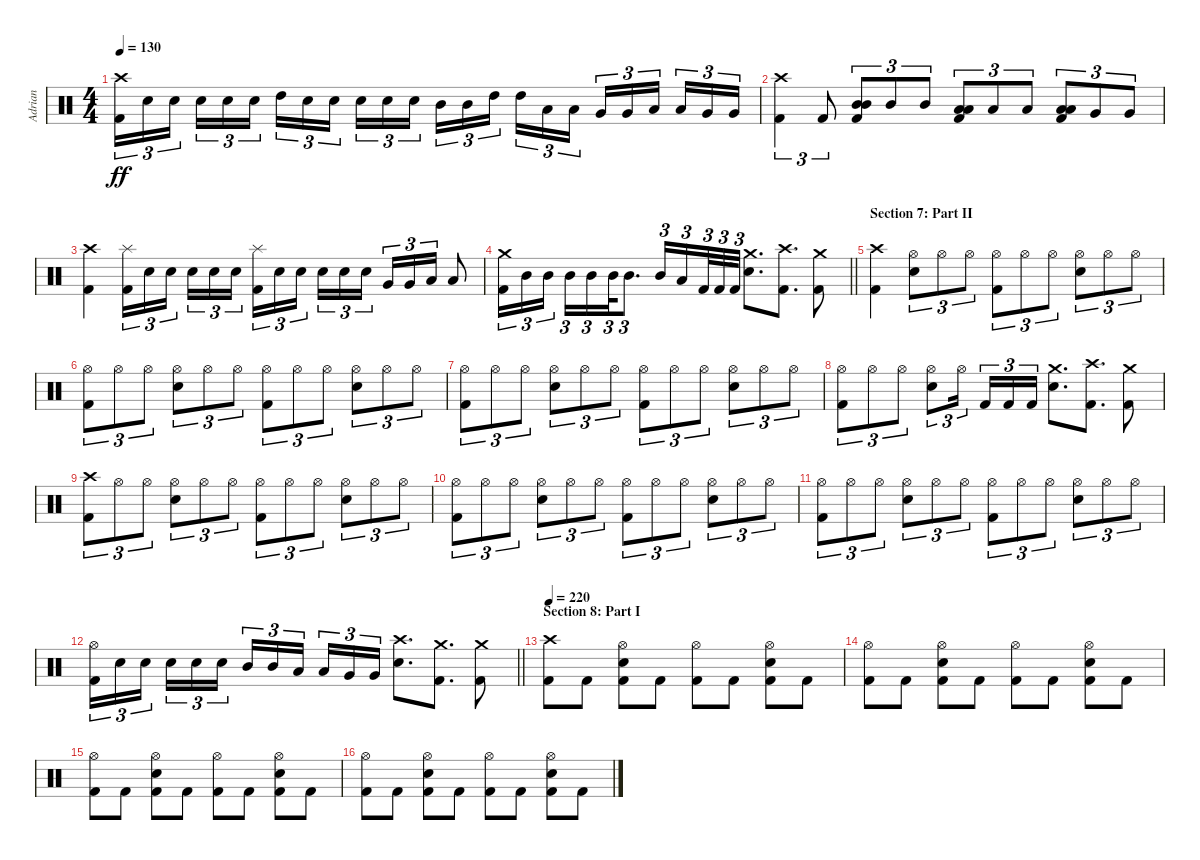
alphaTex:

\track ("Adrian" "Adrian") {instrument percussion}
\staff {score}
\articulation defaults
\ts (4 4)
\tempo 130
\clef neutral
\ks c
("Crash high (hit)" "Kick (hit) 2").16{tu (3 2) dy ff} "Electric Snare (hit)".16{tu (3 2)} "Electric Snare (hit)".16{tu (3 2) beam splitsecondary} "Electric Snare (hit)".16{tu (3 2)} "Electric Snare (hit)".16{tu (3 2)} "Electric Snare (hit)".16{tu (3 2)} "High Tom (hit)".16{tu (3 2)} "Electric Snare (hit)".16{tu (3 2)} "Electric Snare (hit)".16{tu (3 2) beam splitsecondary} "Electric Snare (hit)".16{tu (3 2)} "Electric Snare (hit)".16{tu (3 2)} "Electric Snare (hit)".16{tu (3 2)} "Mid Tom (hit)".16{tu (3 2)} "Mid Tom (hit)".16{tu (3 2)} "High Tom (hit)".16{tu (3 2) beam splitsecondary} "High Tom (hit)".16{tu (3 2)} "Low Tom (hit)".16{tu (3 2)} "Low Tom (hit)".16{tu (3 2)} "Very Low Tom (hit)".16{tu (3 2)} "Very Low Tom (hit)".16{tu (3 2)} "Low Tom (hit)".16{tu (3 2) beam splitsecondary} "Low Tom (hit)".16{tu (3 2)} "Very Low Tom (hit)".16{tu (3 2)} "Very Low Tom (hit)".16{tu (3 2)} |
("Crash high (hit)" "Kick (hit) 2").4{tu (3 2)} "Kick (hit) 2".8{tu (3 2)} ("Mid Tom (hit)" "Mid Tom (hit)" "Kick (hit) 2").8{tu (3 2)} "Mid Tom (hit)".8{tu (3 2)} "Mid Tom (hit)".8{tu (3 2)} ("Low Tom (hit)" "Low Tom (hit)" "Kick (hit) 2").8{tu (3 2)} "Low Tom (hit)".8{tu (3 2)} "Low Tom (hit)".8{tu (3 2)} ("Low Floor Tom (hit)" "Low Floor Tom (hit)" "Kick (hit) 2").8{tu (3 2)} "Very Low Tom (hit)".8{tu (3 2)} "Very Low Tom (hit)".8{tu (3 2)} |
("Crash high (hit)" "Kick (hit) 2").4 ("Splash (hit)" "Kick (hit) 2").16{tu (3 2)} "Electric Snare (hit)".16{tu (3 2)} "Electric Snare (hit)".16{tu (3 2) beam splitsecondary} "Electric Snare (hit)".16{tu (3 2)} "Electric Snare (hit)".16{tu (3 2)} "Electric Snare (hit)".16{tu (3 2)} ("Splash (hit)" "Kick (hit) 2").16{tu (3 2)} "Electric Snare (hit)".16{tu (3 2)} "Electric Snare (hit)".16{tu (3 2) beam splitsecondary} "Electric Snare (hit)".16{tu (3 2)} "Electric Snare (hit)".16{tu (3 2)} "Electric Snare (hit)".16{tu (3 2)} "Very Low Tom (hit)".16{tu (3 2)} "Very Low Tom (hit)".16{tu (3 2)} "Low Tom (hit)".16{tu (3 2)} "Low Tom (hit)".8 |
\barLineRight lightlight
("Crash medium (hit)" "Kick (hit) 2").16{tu (3 2)} "Mid Tom (hit)".16{tu (3 2)} "Mid Tom (hit)".16{tu (3 2) beam splitsecondary} "Mid Tom (hit)".16{tu (3 2)} "Mid Tom (hit)".16{tu (3 2)} "Mid Tom (hit)".32{tu (3 2)} "Mid Tom (hit)".8{d tu (3 2)} "Mid Tom (hit)".16{tu (3 2)} "Low Tom (hit)".16{tu (3 2)} "Kick (hit) 2".32{tu (3 2)} "Kick (hit) 2".32{tu (3 2) beam splitsecondary} "Kick (hit) 2".32{tu (3 2)} ("Crash medium (hit)" "Electric Snare (hit)").8{d} ("Crash high (hit)" "Kick (hit) 2").8{d} ("Crash medium (hit)" "Kick (hit) 2").8 |
\section ("" "Section 7: Part II")
("Crash high (hit)" "Kick (hit) 2").4 ("Hi-Hat (open)" "Electric Snare (hit)").8{tu (3 2)} "Hi-Hat (open)".8{tu (3 2)} "Hi-Hat (open)".8{tu (3 2)} ("Hi-Hat (open)" "Kick (hit) 2").8{tu (3 2)} "Hi-Hat (open)".8{tu (3 2)} "Hi-Hat (open)".8{tu (3 2)} ("Hi-Hat (open)" "Electric Snare (hit)").8{tu (3 2)} "Hi-Hat (open)".8{tu (3 2)} "Hi-Hat (open)".8{tu (3 2)} |
("Hi-Hat (open)" "Kick (hit) 2").8{tu (3 2)} "Hi-Hat (open)".8{tu (3 2)} "Hi-Hat (open)".8{tu (3 2)} ("Hi-Hat (open)" "Electric Snare (hit)").8{tu (3 2)} "Hi-Hat (open)".8{tu (3 2)} "Hi-Hat (open)".8{tu (3 2)} ("Hi-Hat (open)" "Kick (hit) 2").8{tu (3 2)} "Hi-Hat (open)".8{tu (3 2)} "Hi-Hat (open)".8{tu (3 2)} ("Hi-Hat (open)" "Electric Snare (hit)").8{tu (3 2)} "Hi-Hat (open)".8{tu (3 2)} "Hi-Hat (open)".8{tu (3 2)} |
("Hi-Hat (open)" "Kick (hit) 2").8{tu (3 2)} "Hi-Hat (open)".8{tu (3 2)} "Hi-Hat (open)".8{tu (3 2)} ("Hi-Hat (open)" "Electric Snare (hit)").8{tu (3 2)} "Hi-Hat (open)".8{tu (3 2)} "Hi-Hat (open)".8{tu (3 2)} ("Hi-Hat (open)" "Kick (hit) 2").8{tu (3 2)} "Hi-Hat (open)".8{tu (3 2)} "Hi-Hat (open)".8{tu (3 2)} ("Hi-Hat (open)" "Electric Snare (hit)").8{tu (3 2)} "Hi-Hat (open)".8{tu (3 2)} "Hi-Hat (open)".8{tu (3 2)} |
("Hi-Hat (open)" "Kick (hit) 2").8{tu (3 2)} "Hi-Hat (open)".8{tu (3 2)} "Hi-Hat (open)".8{tu (3 2)} ("Hi-Hat (open)" "Electric Snare (hit)").8{tu (3 2)} "Hi-Hat (open)".16{tu (3 2) beam splitsecondary} "Kick (hit) 2".16{tu (3 2)} "Kick (hit) 2".16{tu (3 2)} "Kick (hit) 2".16{tu (3 2)} ("Crash medium (hit)" "Electric Snare (hit)").8{d} ("Crash high (hit)" "Kick (hit) 2").8{d} ("Crash medium (hit)" "Kick (hit) 2").8 |
("Crash high (hit)" "Kick (hit) 2").8{tu (3 2)} "Hi-Hat (open)".8{tu (3 2)} "Hi-Hat (open)".8{tu (3 2)} ("Hi-Hat (open)" "Electric Snare (hit)").8{tu (3 2)} "Hi-Hat (open)".8{tu (3 2)} "Hi-Hat (open)".8{tu (3 2)} ("Hi-Hat (open)" "Kick (hit) 2").8{tu (3 2)} "Hi-Hat (open)".8{tu (3 2)} "Hi-Hat (open)".8{tu (3 2)} ("Hi-Hat (open)" "Electric Snare (hit)").8{tu (3 2)} "Hi-Hat (open)".8{tu (3 2)} "Hi-Hat (open)".8{tu (3 2)} |
("Hi-Hat (open)" "Kick (hit) 2").8{tu (3 2)} "Hi-Hat (open)".8{tu (3 2)} "Hi-Hat (open)".8{tu (3 2)} ("Hi-Hat (open)" "Electric Snare (hit)").8{tu (3 2)} "Hi-Hat (open)".8{tu (3 2)} "Hi-Hat (open)".8{tu (3 2)} ("Hi-Hat (open)" "Kick (hit) 2").8{tu (3 2)} "Hi-Hat (open)".8{tu (3 2)} "Hi-Hat (open)".8{tu (3 2)} ("Hi-Hat (open)" "Electric Snare (hit)").8{tu (3 2)} "Hi-Hat (open)".8{tu (3 2)} "Hi-Hat (open)".8{tu (3 2)} |
("Hi-Hat (open)" "Kick (hit) 2").8{tu (3 2)} "Hi-Hat (open)".8{tu (3 2)} "Hi-Hat (open)".8{tu (3 2)} ("Hi-Hat (open)" "Electric Snare (hit)").8{tu (3 2)} "Hi-Hat (open)".8{tu (3 2)} "Hi-Hat (open)".8{tu (3 2)} ("Hi-Hat (open)" "Kick (hit) 2").8{tu (3 2)} "Hi-Hat (open)".8{tu (3 2)} "Hi-Hat (open)".8{tu (3 2)} ("Hi-Hat (open)" "Electric Snare (hit)").8{tu (3 2)} "Hi-Hat (open)".8{tu (3 2)} "Hi-Hat (open)".8{tu (3 2)} |
\barLineRight lightlight
("Hi-Hat (open)" "Kick (hit) 2").16{tu (3 2)} "Electric Snare (hit)".16{tu (3 2)} "Electric Snare (hit)".16{tu (3 2) beam splitsecondary} "Electric Snare (hit)".16{tu (3 2)} "Electric Snare (hit)".16{tu (3 2)} "Electric Snare (hit)".16{tu (3 2)} "Mid Tom (hit)".16{tu (3 2)} "Mid Tom (hit)".16{tu (3 2)} "Low Tom (hit)".16{tu (3 2) beam splitsecondary} "Low Tom (hit)".16{tu (3 2)} "Very Low Tom (hit)".16{tu (3 2)} "Very Low Tom (hit)".16{tu (3 2)} ("Crash high (hit)" "Electric Snare (hit)").8{d} ("Crash medium (hit)" "Kick (hit) 2").8{d} ("Crash medium (hit)" "Kick (hit) 2").8 |
\section ("" "Section 8: Part I")
\tempo 220
("Crash high (hit)" "Kick (hit) 2").8 "Kick (hit) 2".8 ("Hi-Hat (open)" "Electric Snare (hit)" "Kick (hit) 2").8 "Kick (hit) 2".8 ("Hi-Hat (open)" "Kick (hit) 2").8 "Kick (hit) 2".8 ("Hi-Hat (open)" "Electric Snare (hit)" "Kick (hit) 2").8 "Kick (hit) 2".8 |
("Hi-Hat (open)" "Kick (hit) 2").8 "Kick (hit) 2".8 ("Hi-Hat (open)" "Electric Snare (hit)" "Kick (hit) 2").8 "Kick (hit) 2".8 ("Hi-Hat (open)" "Kick (hit) 2").8 "Kick (hit) 2".8 ("Hi-Hat (open)" "Electric Snare (hit)" "Kick (hit) 2").8 "Kick (hit) 2".8 |
("Hi-Hat (open)" "Kick (hit) 2").8 "Kick (hit) 2".8 ("Hi-Hat (open)" "Electric Snare (hit)" "Kick (hit) 2").8 "Kick (hit) 2".8 ("Hi-Hat (open)" "Kick (hit) 2").8 "Kick (hit) 2".8 ("Hi-Hat (open)" "Electric Snare (hit)" "Kick (hit) 2").8 "Kick (hit) 2".8 |
("Hi-Hat (open)" "Kick (hit) 2").8 "Kick (hit) 2".8 ("Hi-Hat (open)" "Electric Snare (hit)" "Kick (hit) 2").8 "Kick (hit) 2".8 ("Hi-Hat (open)" "Kick (hit) 2").8 "Kick (hit) 2".8 ("Hi-Hat (open)" "Electric Snare (hit)" "Kick (hit) 2").8 "Kick (hit) 2".8
